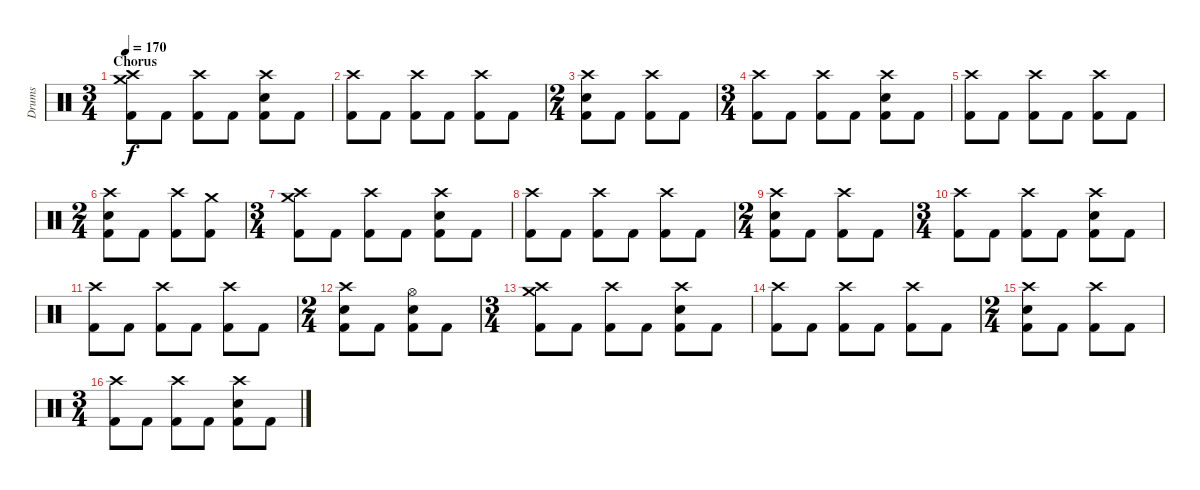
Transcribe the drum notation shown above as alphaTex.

\track ("Drums" "Drums") {instrument percussion}
\staff {score}
\articulation defaults
\ts (3 4)
\section ("" "Chorus")
\tempo 170
\clef neutral
\ks c
("Crash medium (hit)" "Crash high (hit)" "Kick (hit) 2").8{dy f} "Kick (hit) 2".8 ("Crash high (hit)" "Kick (hit) 2").8 "Kick (hit) 2".8 ("Crash high (hit)" "Electric Snare (hit)" "Kick (hit) 2").8 "Kick (hit) 2".8 |
("Crash high (hit)" "Kick (hit) 2").8 "Kick (hit) 2".8 ("Crash high (hit)" "Kick (hit) 2").8 "Kick (hit) 2".8 ("Crash high (hit)" "Kick (hit) 2").8 "Kick (hit) 2".8 |
\ts (2 4)
("Crash high (hit)" "Electric Snare (hit)" "Kick (hit) 2").8 "Kick (hit) 2".8 ("Crash high (hit)" "Kick (hit) 2").8 "Kick (hit) 2".8 |
\ts (3 4)
("Crash high (hit)" "Kick (hit) 2").8 "Kick (hit) 2".8 ("Crash high (hit)" "Kick (hit) 2").8 "Kick (hit) 2".8 ("Crash high (hit)" "Electric Snare (hit)" "Kick (hit) 2").8 "Kick (hit) 2".8 |
("Crash high (hit)" "Kick (hit) 2").8 "Kick (hit) 2".8 ("Crash high (hit)" "Kick (hit) 2").8 "Kick (hit) 2".8 ("Crash high (hit)" "Kick (hit) 2").8 "Kick (hit) 2".8 |
\ts (2 4)
("Crash high (hit)" "Electric Snare (hit)" "Kick (hit) 2").8 "Kick (hit) 2".8 ("Crash high (hit)" "Kick (hit) 2").8 ("Crash medium (hit)" "Kick (hit) 2").8 |
\ts (3 4)
("Crash medium (hit)" "Crash high (hit)" "Kick (hit) 2").8 "Kick (hit) 2".8 ("Crash high (hit)" "Kick (hit) 2").8 "Kick (hit) 2".8 ("Crash high (hit)" "Electric Snare (hit)" "Kick (hit) 2").8 "Kick (hit) 2".8 |
("Crash high (hit)" "Kick (hit) 2").8 "Kick (hit) 2".8 ("Crash high (hit)" "Kick (hit) 2").8 "Kick (hit) 2".8 ("Crash high (hit)" "Kick (hit) 2").8 "Kick (hit) 2".8 |
\ts (2 4)
("Crash high (hit)" "Electric Snare (hit)" "Kick (hit) 2").8 "Kick (hit) 2".8 ("Crash high (hit)" "Kick (hit) 2").8 "Kick (hit) 2".8 |
\ts (3 4)
("Crash high (hit)" "Kick (hit) 2").8 "Kick (hit) 2".8 ("Crash high (hit)" "Kick (hit) 2").8 "Kick (hit) 2".8 ("Crash high (hit)" "Electric Snare (hit)" "Kick (hit) 2").8 "Kick (hit) 2".8 |
("Crash high (hit)" "Kick (hit) 2").8 "Kick (hit) 2".8 ("Crash high (hit)" "Kick (hit) 2").8 "Kick (hit) 2".8 ("Crash high (hit)" "Kick (hit) 2").8 "Kick (hit) 2".8 |
\ts (2 4)
("Crash high (hit)" "Electric Snare (hit)" "Kick (hit) 2").8 "Kick (hit) 2".8 ("Hi-Hat (open)" "Electric Snare (hit)" "Kick (hit) 2").8 "Kick (hit) 2".8 |
\ts (3 4)
("Crash medium (hit)" "Crash high (hit)" "Kick (hit) 2").8 "Kick (hit) 2".8 ("Crash high (hit)" "Kick (hit) 2").8 "Kick (hit) 2".8 ("Crash high (hit)" "Electric Snare (hit)" "Kick (hit) 2").8 "Kick (hit) 2".8 |
("Crash high (hit)" "Kick (hit) 2").8 "Kick (hit) 2".8 ("Crash high (hit)" "Kick (hit) 2").8 "Kick (hit) 2".8 ("Crash high (hit)" "Kick (hit) 2").8 "Kick (hit) 2".8 |
\ts (2 4)
("Crash high (hit)" "Electric Snare (hit)" "Kick (hit) 2").8 "Kick (hit) 2".8 ("Crash high (hit)" "Kick (hit) 2").8 "Kick (hit) 2".8 |
\ts (3 4)
("Crash high (hit)" "Kick (hit) 2").8 "Kick (hit) 2".8 ("Crash high (hit)" "Kick (hit) 2").8 "Kick (hit) 2".8 ("Crash high (hit)" "Electric Snare (hit)" "Kick (hit) 2").8 "Kick (hit) 2".8
